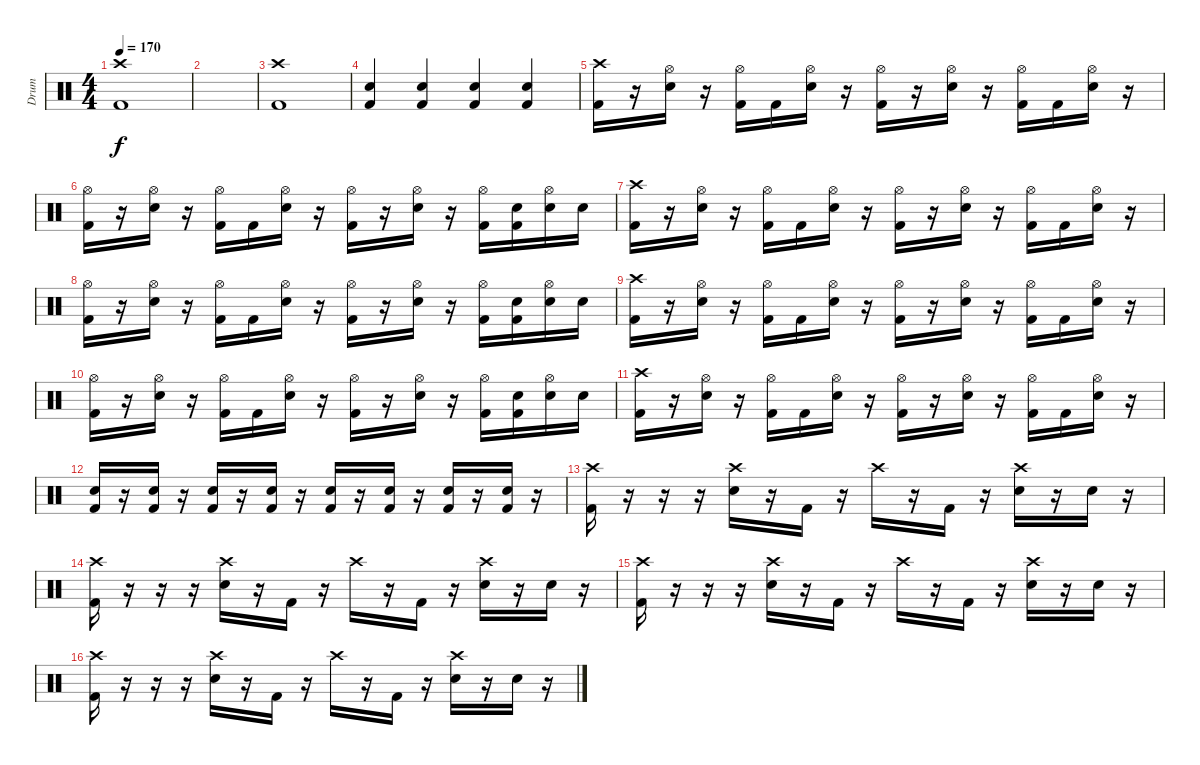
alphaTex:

\track ("Drum" "Drum") {instrument percussion}
\staff {score}
\articulation defaults
\ts (4 4)
\tempo 170
\clef neutral
\ks c
("Crash high (hit)" "Kick (hit) 2").1{dy f} |
|
("Crash high (hit)" "Kick (hit) 2").1 |
("Electric Snare (hit)" "Kick (hit) 2").4 ("Electric Snare (hit)" "Kick (hit) 2").4 ("Electric Snare (hit)" "Kick (hit) 2").4 ("Electric Snare (hit)" "Kick (hit) 2").4 |
("Crash high (hit)" "Kick (hit) 2").16 r.16 ("Hi-Hat (open)" "Electric Snare (hit)").16 r.16 ("Hi-Hat (open)" "Kick (hit) 2").16 "Kick (hit) 2".16 ("Hi-Hat (open)" "Electric Snare (hit)").16 r.16 ("Hi-Hat (open)" "Kick (hit) 2").16 r.16 ("Hi-Hat (open)" "Electric Snare (hit)").16 r.16 ("Hi-Hat (open)" "Kick (hit) 2").16 "Kick (hit) 2".16 ("Hi-Hat (open)" "Electric Snare (hit)").16 r.16 |
("Hi-Hat (open)" "Kick (hit) 2").16 r.16 ("Hi-Hat (open)" "Electric Snare (hit)").16 r.16 ("Hi-Hat (open)" "Kick (hit) 2").16 "Kick (hit) 2".16 ("Hi-Hat (open)" "Electric Snare (hit)").16 r.16 ("Hi-Hat (open)" "Kick (hit) 2").16 r.16 ("Hi-Hat (open)" "Electric Snare (hit)").16 r.16 ("Hi-Hat (open)" "Kick (hit) 2").16 ("Electric Snare (hit)" "Kick (hit) 2").16 ("Hi-Hat (open)" "Electric Snare (hit)").16 "Electric Snare (hit)".16 |
("Crash high (hit)" "Kick (hit) 2").16 r.16 ("Hi-Hat (open)" "Electric Snare (hit)").16 r.16 ("Hi-Hat (open)" "Kick (hit) 2").16 "Kick (hit) 2".16 ("Hi-Hat (open)" "Electric Snare (hit)").16 r.16 ("Hi-Hat (open)" "Kick (hit) 2").16 r.16 ("Hi-Hat (open)" "Electric Snare (hit)").16 r.16 ("Hi-Hat (open)" "Kick (hit) 2").16 "Kick (hit) 2".16 ("Hi-Hat (open)" "Electric Snare (hit)").16 r.16 |
("Hi-Hat (open)" "Kick (hit) 2").16 r.16 ("Hi-Hat (open)" "Electric Snare (hit)").16 r.16 ("Hi-Hat (open)" "Kick (hit) 2").16 "Kick (hit) 2".16 ("Hi-Hat (open)" "Electric Snare (hit)").16 r.16 ("Hi-Hat (open)" "Kick (hit) 2").16 r.16 ("Hi-Hat (open)" "Electric Snare (hit)").16 r.16 ("Hi-Hat (open)" "Kick (hit) 2").16 ("Electric Snare (hit)" "Kick (hit) 2").16 ("Hi-Hat (open)" "Electric Snare (hit)").16 "Electric Snare (hit)".16 |
("Crash high (hit)" "Kick (hit) 2").16 r.16 ("Hi-Hat (open)" "Electric Snare (hit)").16 r.16 ("Hi-Hat (open)" "Kick (hit) 2").16 "Kick (hit) 2".16 ("Hi-Hat (open)" "Electric Snare (hit)").16 r.16 ("Hi-Hat (open)" "Kick (hit) 2").16 r.16 ("Hi-Hat (open)" "Electric Snare (hit)").16 r.16 ("Hi-Hat (open)" "Kick (hit) 2").16 "Kick (hit) 2".16 ("Hi-Hat (open)" "Electric Snare (hit)").16 r.16 |
("Hi-Hat (open)" "Kick (hit) 2").16 r.16 ("Hi-Hat (open)" "Electric Snare (hit)").16 r.16 ("Hi-Hat (open)" "Kick (hit) 2").16 "Kick (hit) 2".16 ("Hi-Hat (open)" "Electric Snare (hit)").16 r.16 ("Hi-Hat (open)" "Kick (hit) 2").16 r.16 ("Hi-Hat (open)" "Electric Snare (hit)").16 r.16 ("Hi-Hat (open)" "Kick (hit) 2").16 ("Electric Snare (hit)" "Kick (hit) 2").16 ("Hi-Hat (open)" "Electric Snare (hit)").16 "Electric Snare (hit)".16 |
("Crash high (hit)" "Kick (hit) 2").16 r.16 ("Hi-Hat (open)" "Electric Snare (hit)").16 r.16 ("Hi-Hat (open)" "Kick (hit) 2").16 "Kick (hit) 2".16 ("Hi-Hat (open)" "Electric Snare (hit)").16 r.16 ("Hi-Hat (open)" "Kick (hit) 2").16 r.16 ("Hi-Hat (open)" "Electric Snare (hit)").16 r.16 ("Hi-Hat (open)" "Kick (hit) 2").16 "Kick (hit) 2".16 ("Hi-Hat (open)" "Electric Snare (hit)").16 r.16 |
("Electric Snare (hit)" "Kick (hit) 2").16 r.16 ("Electric Snare (hit)" "Kick (hit) 2").16 r.16 ("Electric Snare (hit)" "Kick (hit) 2").16 r.16 ("Electric Snare (hit)" "Kick (hit) 2").16 r.16 ("Electric Snare (hit)" "Kick (hit) 2").16 r.16 ("Electric Snare (hit)" "Kick (hit) 2").16 r.16 ("Electric Snare (hit)" "Kick (hit) 2").16 r.16 ("Electric Snare (hit)" "Kick (hit) 2").16 r.16 |
("Crash high (hit)" "Kick (hit) 2").16 r.16 r.16 r.16 ("Crash high (hit)" "Electric Snare (hit)").16 r.16 "Kick (hit) 2".16 r.16 "Crash high (hit)".16 r.16 "Kick (hit) 2".16 r.16 ("Crash high (hit)" "Electric Snare (hit)").16 r.16 "Electric Snare (hit)".16 r.16 |
("Crash high (hit)" "Kick (hit) 2").16 r.16 r.16 r.16 ("Crash high (hit)" "Electric Snare (hit)").16 r.16 "Kick (hit) 2".16 r.16 "Crash high (hit)".16 r.16 "Kick (hit) 2".16 r.16 ("Crash high (hit)" "Electric Snare (hit)").16 r.16 "Electric Snare (hit)".16 r.16 |
("Crash high (hit)" "Kick (hit) 2").16 r.16 r.16 r.16 ("Crash high (hit)" "Electric Snare (hit)").16 r.16 "Kick (hit) 2".16 r.16 "Crash high (hit)".16 r.16 "Kick (hit) 2".16 r.16 ("Crash high (hit)" "Electric Snare (hit)").16 r.16 "Electric Snare (hit)".16 r.16 |
("Crash high (hit)" "Kick (hit) 2").16 r.16 r.16 r.16 ("Crash high (hit)" "Electric Snare (hit)").16 r.16 "Kick (hit) 2".16 r.16 "Crash high (hit)".16 r.16 "Kick (hit) 2".16 r.16 ("Crash high (hit)" "Electric Snare (hit)").16 r.16 "Electric Snare (hit)".16 r.16
